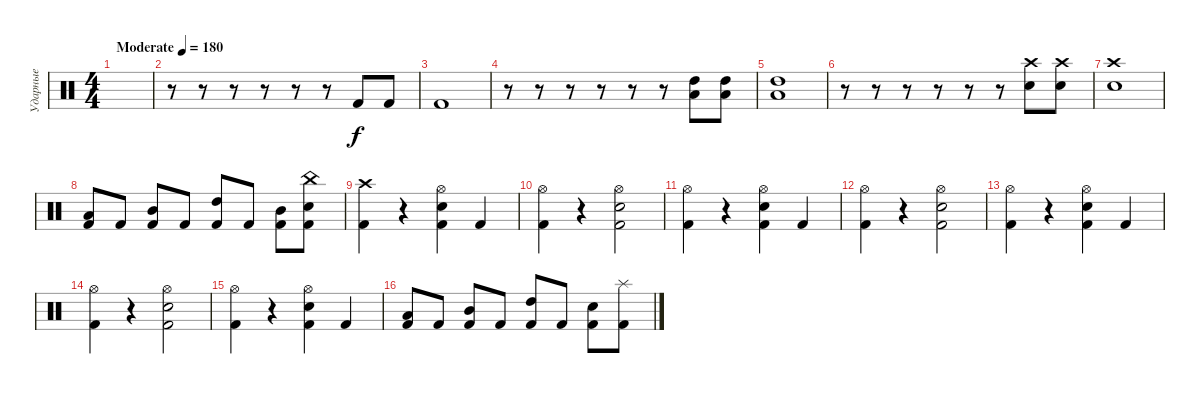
\track ("Ударные" "Ударные") {instrument percussion}
\staff {score}
\articulation defaults
\ts (4 4)
\tempo (180 "Moderate")
\clef neutral
\ks c
|
r.8 r.8 r.8 r.8 r.8 r.8 "Kick (hit) 2".8 "Kick (hit) 2".8 |
"Kick (hit) 2".1 |
r.8 r.8 r.8 r.8 r.8 r.8 ("Low Tom (hit)" "High Tom (hit)").8 ("Low Tom (hit)" "High Tom (hit)").8 |
("Low Tom (hit)" "High Tom (hit)").1 |
r.8 r.8 r.8 r.8 r.8 r.8 ("Crash high (hit)" "Electric Snare (hit)").8 ("Crash high (hit)" "Electric Snare (hit)").8 |
("Crash high (hit)" "Electric Snare (hit)").1 |
("Kick (hit) 2" "Low Tom (hit)").8 "Kick (hit) 2".8 ("Kick (hit) 2" "Mid Tom (hit)").8 "Kick (hit) 2".8 ("Kick (hit) 2" "High Tom (hit)").8 "Kick (hit) 2".8 ("Kick (hit) 2" "Mid Tom (hit)").8 ("Kick (hit) 2" "China (hit)" "Electric Snare (hit)").8 |
("Crash high (hit)" "Kick (hit) 2").4 r.4 ("Hi-Hat (open)" "Kick (hit) 2" "Electric Snare (hit)").4 "Kick (hit) 2".4 |
("Hi-Hat (open)" "Kick (hit) 2").4 r.4 ("Hi-Hat (open)" "Kick (hit) 2" "Electric Snare (hit)").2 |
("Hi-Hat (open)" "Kick (hit) 2").4 r.4 ("Hi-Hat (open)" "Kick (hit) 2" "Electric Snare (hit)").4 "Kick (hit) 2".4 |
("Hi-Hat (open)" "Kick (hit) 2").4 r.4 ("Hi-Hat (open)" "Kick (hit) 2" "Electric Snare (hit)").2 |
("Hi-Hat (open)" "Kick (hit) 2").4 r.4 ("Hi-Hat (open)" "Kick (hit) 2" "Electric Snare (hit)").4 "Kick (hit) 2".4 |
("Hi-Hat (open)" "Kick (hit) 2").4 r.4 ("Hi-Hat (open)" "Kick (hit) 2" "Electric Snare (hit)").2 |
("Hi-Hat (open)" "Kick (hit) 2").4 r.4 ("Hi-Hat (open)" "Kick (hit) 2" "Electric Snare (hit)").4 "Kick (hit) 2".4 |
("Low Tom (hit)" "Kick (hit) 2").8 "Kick (hit) 2".8 ("Mid Tom (hit)" "Kick (hit) 2").8 "Kick (hit) 2".8 ("High Tom (hit)" "Kick (hit) 2").8 "Kick (hit) 2".8 ("Electric Snare (hit)" "Kick (hit) 2").8 ("Splash (hit)" "Kick (hit) 2").8
